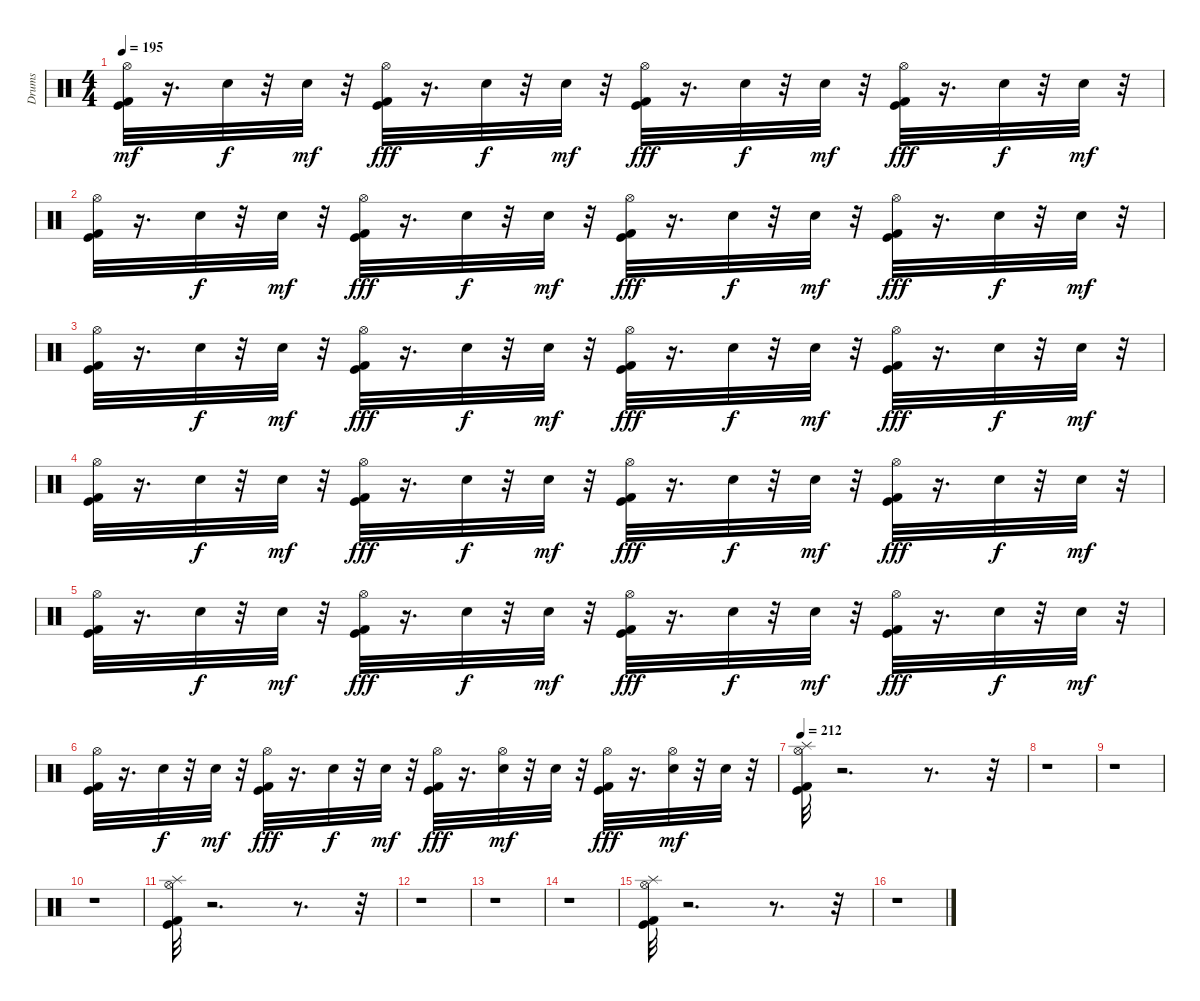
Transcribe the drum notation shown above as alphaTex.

\track ("Drums" "Drums") {instrument percussion}
\staff {score}
\articulation defaults
\ts (4 4)
\tempo 195
\clef neutral
\ks c
("Kick (hit) 2" "Kick (hit)" "Hi-Hat (open)").32{dy mf} r.16{d} "Snare (hit) 2".32{dy f} r.32 "Snare (hit) 2".32{dy mf} r.32 ("Hi-Hat (open)" "Kick (hit) 2" "Kick (hit)").32{dy fff} r.16{d} "Snare (hit) 2".32{dy f} r.32 "Snare (hit) 2".32{dy mf} r.32 ("Hi-Hat (open)" "Kick (hit) 2" "Kick (hit)").32{dy fff} r.16{d} "Snare (hit) 2".32{dy f} r.32 "Snare (hit) 2".32{dy mf} r.32 ("Hi-Hat (open)" "Kick (hit) 2" "Kick (hit)").32{dy fff} r.16{d} "Snare (hit) 2".32{dy f} r.32 "Snare (hit) 2".32{dy mf} r.32 |
("Kick (hit) 2" "Kick (hit)" "Hi-Hat (open)").32 r.16{d} "Snare (hit) 2".32{dy f} r.32 "Snare (hit) 2".32{dy mf} r.32 ("Hi-Hat (open)" "Kick (hit) 2" "Kick (hit)").32{dy fff} r.16{d} "Snare (hit) 2".32{dy f} r.32 "Snare (hit) 2".32{dy mf} r.32 ("Hi-Hat (open)" "Kick (hit) 2" "Kick (hit)").32{dy fff} r.16{d} "Snare (hit) 2".32{dy f} r.32 "Snare (hit) 2".32{dy mf} r.32 ("Hi-Hat (open)" "Kick (hit) 2" "Kick (hit)").32{dy fff} r.16{d} "Snare (hit) 2".32{dy f} r.32 "Snare (hit) 2".32{dy mf} r.32 |
("Kick (hit) 2" "Kick (hit)" "Hi-Hat (open)").32 r.16{d} "Snare (hit) 2".32{dy f} r.32 "Snare (hit) 2".32{dy mf} r.32 ("Hi-Hat (open)" "Kick (hit) 2" "Kick (hit)").32{dy fff} r.16{d} "Snare (hit) 2".32{dy f} r.32 "Snare (hit) 2".32{dy mf} r.32 ("Hi-Hat (open)" "Kick (hit) 2" "Kick (hit)").32{dy fff} r.16{d} "Snare (hit) 2".32{dy f} r.32 "Snare (hit) 2".32{dy mf} r.32 ("Hi-Hat (open)" "Kick (hit) 2" "Kick (hit)").32{dy fff} r.16{d} "Snare (hit) 2".32{dy f} r.32 "Snare (hit) 2".32{dy mf} r.32 |
("Kick (hit) 2" "Kick (hit)" "Hi-Hat (open)").32 r.16{d} "Snare (hit) 2".32{dy f} r.32 "Snare (hit) 2".32{dy mf} r.32 ("Hi-Hat (open)" "Kick (hit) 2" "Kick (hit)").32{dy fff} r.16{d} "Snare (hit) 2".32{dy f} r.32 "Snare (hit) 2".32{dy mf} r.32 ("Hi-Hat (open)" "Kick (hit) 2" "Kick (hit)").32{dy fff} r.16{d} "Snare (hit) 2".32{dy f} r.32 "Snare (hit) 2".32{dy mf} r.32 ("Hi-Hat (open)" "Kick (hit) 2" "Kick (hit)").32{dy fff} r.16{d} "Snare (hit) 2".32{dy f} r.32 "Snare (hit) 2".32{dy mf} r.32 |
("Kick (hit) 2" "Kick (hit)" "Hi-Hat (open)").32 r.16{d} "Snare (hit) 2".32{dy f} r.32 "Snare (hit) 2".32{dy mf} r.32 ("Hi-Hat (open)" "Kick (hit) 2" "Kick (hit)").32{dy fff} r.16{d} "Snare (hit) 2".32{dy f} r.32 "Snare (hit) 2".32{dy mf} r.32 ("Hi-Hat (open)" "Kick (hit) 2" "Kick (hit)").32{dy fff} r.16{d} "Snare (hit) 2".32{dy f} r.32 "Snare (hit) 2".32{dy mf} r.32 ("Hi-Hat (open)" "Kick (hit) 2" "Kick (hit)").32{dy fff} r.16{d} "Snare (hit) 2".32{dy f} r.32 "Snare (hit) 2".32{dy mf} r.32 |
("Kick (hit) 2" "Kick (hit)" "Hi-Hat (open)").32 r.16{d} "Snare (hit) 2".32{dy f} r.32 "Snare (hit) 2".32{dy mf} r.32 ("Hi-Hat (open)" "Kick (hit) 2" "Kick (hit)").32{dy fff} r.16{d} "Snare (hit) 2".32{dy f} r.32 "Snare (hit) 2".32{dy mf} r.32 ("Hi-Hat (open)" "Kick (hit) 2" "Kick (hit)").32{dy fff} r.16{d} ("Snare (hit) 2" "Hi-Hat (open)").32{dy mf} r.32 "Snare (hit) 2".32 r.32 ("Hi-Hat (open)" "Kick (hit) 2" "Kick (hit)").32{dy fff} r.16{d} ("Snare (hit) 2" "Hi-Hat (open)").32{dy mf} r.32 "Snare (hit) 2".32 r.32 |
\tempo 212
("Kick (hit) 2" "Kick (hit)" "Splash (hit)" "Hi-Hat (open)").32 r.2{d} r.8{d} r.32 |
r.1 |
r.1 |
r.1 |
("Kick (hit) 2" "Kick (hit)" "Splash (hit)" "Hi-Hat (open)").32 r.2{d} r.8{d} r.32 |
r.1 |
r.1 |
r.1 |
("Kick (hit) 2" "Kick (hit)" "Splash (hit)" "Hi-Hat (open)").32 r.2{d} r.8{d} r.32 |
r.1
